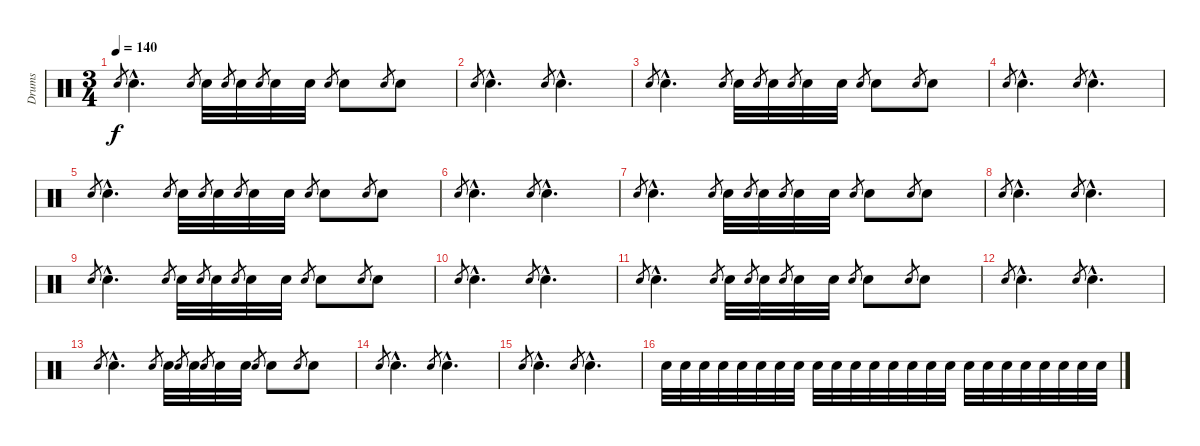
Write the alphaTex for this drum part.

\track ("Drums" "Drums") {instrument percussion}
\staff {score}
\articulation defaults
\ts (3 4)
\tempo 140
\clef neutral
\ks c "Snare (hit) 2".8{gr dy f} "Snare (hit) 2"{hac}.4{d} "Snare (hit) 2".8{gr} "Snare (hit) 2".32 "Snare (hit) 2".8{gr} "Snare (hit) 2".32 "Snare (hit) 2".8{gr} "Snare (hit) 2".32 "Snare (hit) 2".32 "Snare (hit) 2".8{gr} "Snare (hit) 2".8 "Snare (hit) 2".8{gr} "Snare (hit) 2".8
|
"Snare (hit) 2".8{gr} "Snare (hit) 2"{hac}.4{d} "Snare (hit) 2".8{gr} "Snare (hit) 2"{hac}.4{d} |
"Snare (hit) 2".8{gr} "Snare (hit) 2"{hac}.4{d} "Snare (hit) 2".8{gr} "Snare (hit) 2".32 "Snare (hit) 2".8{gr} "Snare (hit) 2".32 "Snare (hit) 2".8{gr} "Snare (hit) 2".32 "Snare (hit) 2".32 "Snare (hit) 2".8{gr} "Snare (hit) 2".8 "Snare (hit) 2".8{gr} "Snare (hit) 2".8 |
"Snare (hit) 2".8{gr} "Snare (hit) 2"{hac}.4{d} "Snare (hit) 2".8{gr} "Snare (hit) 2"{hac}.4{d} |
"Snare (hit) 2".8{gr} "Snare (hit) 2"{hac}.4{d} "Snare (hit) 2".8{gr} "Snare (hit) 2".32 "Snare (hit) 2".8{gr} "Snare (hit) 2".32 "Snare (hit) 2".8{gr} "Snare (hit) 2".32 "Snare (hit) 2".32 "Snare (hit) 2".8{gr} "Snare (hit) 2".8 "Snare (hit) 2".8{gr} "Snare (hit) 2".8 |
"Snare (hit) 2".8{gr} "Snare (hit) 2"{hac}.4{d} "Snare (hit) 2".8{gr} "Snare (hit) 2"{hac}.4{d} |
"Snare (hit) 2".8{gr} "Snare (hit) 2"{hac}.4{d} "Snare (hit) 2".8{gr} "Snare (hit) 2".32 "Snare (hit) 2".8{gr} "Snare (hit) 2".32 "Snare (hit) 2".8{gr} "Snare (hit) 2".32 "Snare (hit) 2".32 "Snare (hit) 2".8{gr} "Snare (hit) 2".8 "Snare (hit) 2".8{gr} "Snare (hit) 2".8 |
"Snare (hit) 2".8{gr} "Snare (hit) 2"{hac}.4{d} "Snare (hit) 2".8{gr} "Snare (hit) 2"{hac}.4{d} |
"Snare (hit) 2".8{gr} "Snare (hit) 2"{hac}.4{d} "Snare (hit) 2".8{gr} "Snare (hit) 2".32 "Snare (hit) 2".8{gr} "Snare (hit) 2".32 "Snare (hit) 2".8{gr} "Snare (hit) 2".32 "Snare (hit) 2".32 "Snare (hit) 2".8{gr} "Snare (hit) 2".8 "Snare (hit) 2".8{gr} "Snare (hit) 2".8 |
"Snare (hit) 2".8{gr} "Snare (hit) 2"{hac}.4{d} "Snare (hit) 2".8{gr} "Snare (hit) 2"{hac}.4{d} |
"Snare (hit) 2".8{gr} "Snare (hit) 2"{hac}.4{d} "Snare (hit) 2".8{gr} "Snare (hit) 2".32 "Snare (hit) 2".8{gr} "Snare (hit) 2".32 "Snare (hit) 2".8{gr} "Snare (hit) 2".32 "Snare (hit) 2".32 "Snare (hit) 2".8{gr} "Snare (hit) 2".8 "Snare (hit) 2".8{gr} "Snare (hit) 2".8 |
"Snare (hit) 2".8{gr} "Snare (hit) 2"{hac}.4{d} "Snare (hit) 2".8{gr} "Snare (hit) 2"{hac}.4{d} |
"Snare (hit) 2".8{gr} "Snare (hit) 2"{hac}.4{d} "Snare (hit) 2".8{gr} "Snare (hit) 2".32 "Snare (hit) 2".8{gr} "Snare (hit) 2".32 "Snare (hit) 2".8{gr} "Snare (hit) 2".32 "Snare (hit) 2".32 "Snare (hit) 2".8{gr} "Snare (hit) 2".8 "Snare (hit) 2".8{gr} "Snare (hit) 2".8 |
"Snare (hit) 2".8{gr} "Snare (hit) 2"{hac}.4{d} "Snare (hit) 2".8{gr} "Snare (hit) 2"{hac}.4{d} |
"Snare (hit) 2".8{gr} "Snare (hit) 2"{hac}.4{d} "Snare (hit) 2".8{gr} "Snare (hit) 2"{hac}.4{d} |
"Snare (hit) 2".32 "Snare (hit) 2".32 "Snare (hit) 2".32 "Snare (hit) 2".32 "Snare (hit) 2".32 "Snare (hit) 2".32 "Snare (hit) 2".32 "Snare (hit) 2".32 "Snare (hit) 2".32 "Snare (hit) 2".32 "Snare (hit) 2".32 "Snare (hit) 2".32 "Snare (hit) 2".32 "Snare (hit) 2".32 "Snare (hit) 2".32 "Snare (hit) 2".32 "Snare (hit) 2".32 "Snare (hit) 2".32 "Snare (hit) 2".32 "Snare (hit) 2".32 "Snare (hit) 2".32 "Snare (hit) 2".32 "Snare (hit) 2".32 "Snare (hit) 2".32
